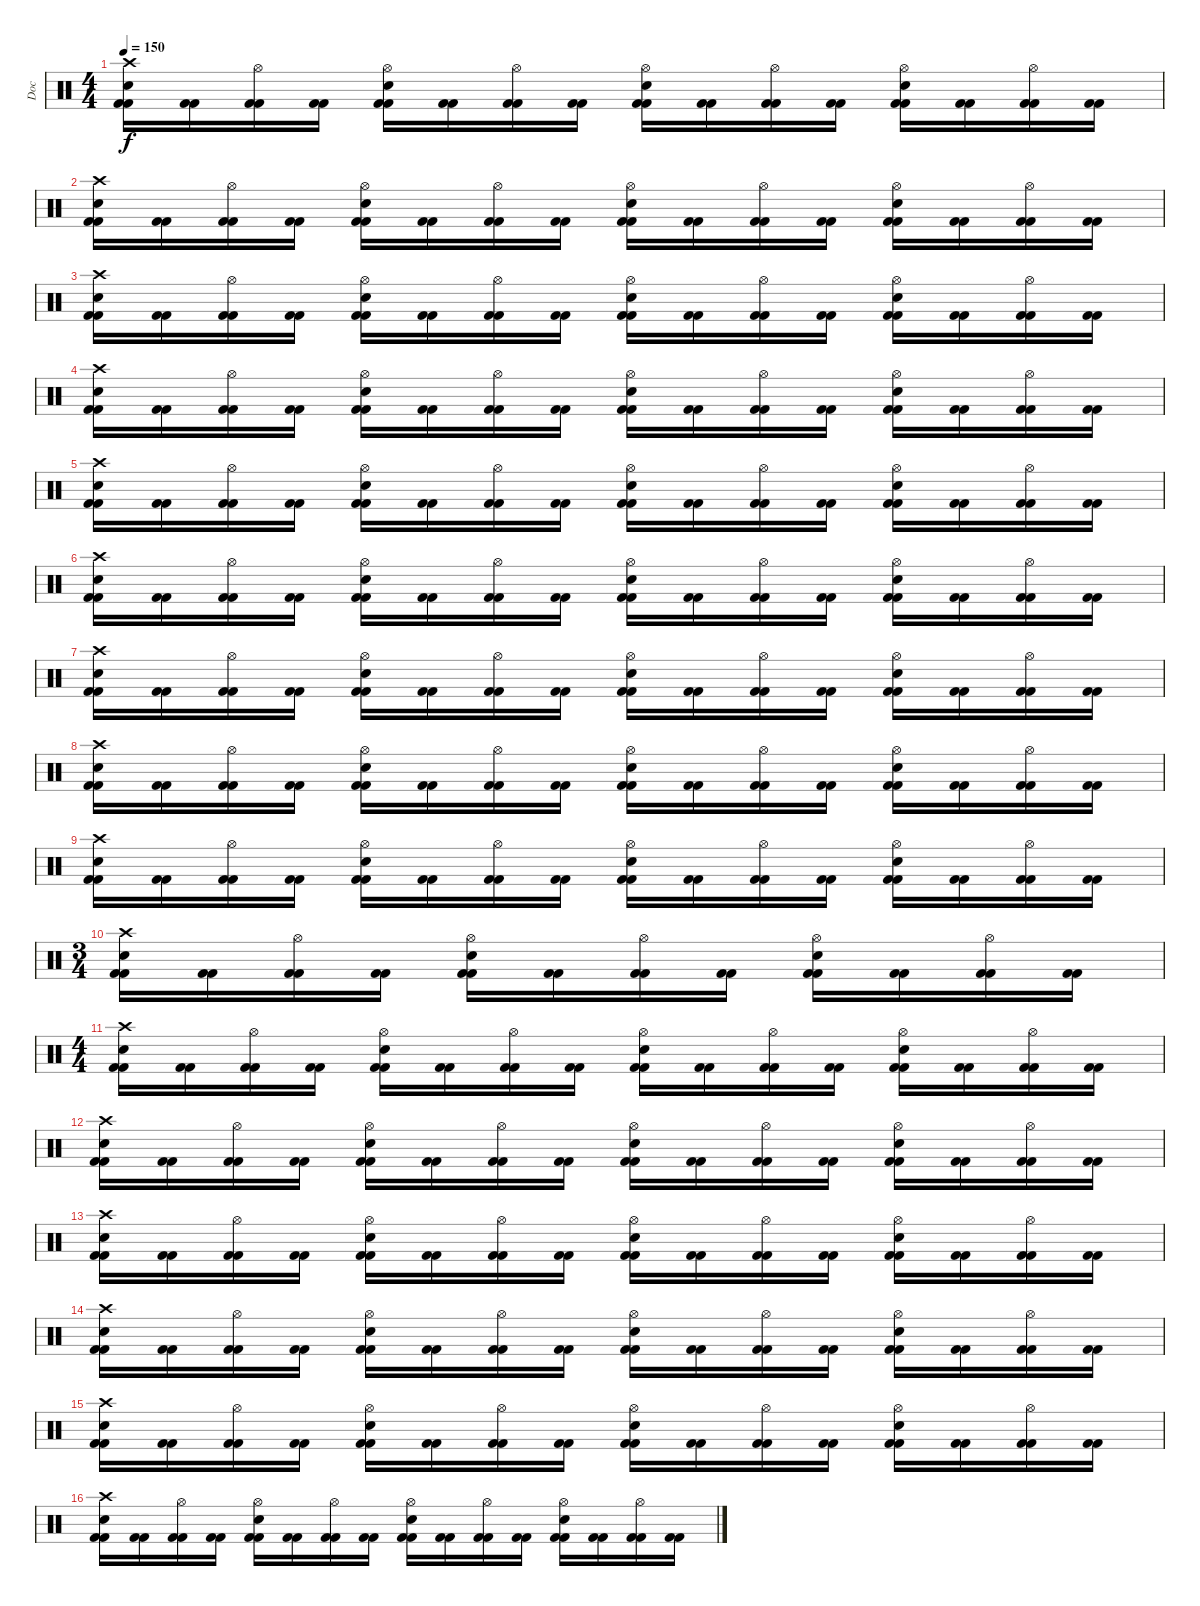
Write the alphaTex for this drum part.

\track ("Doc" "Doc") {instrument percussion}
\staff {score}
\articulation defaults
\ts (4 4)
\tempo 150
\clef neutral
\ks c
("Kick (hit) 2" "Crash high (hit)" "Electric Snare (hit)" "Kick (hit) 2").16{dy f} ("Kick (hit) 2" "Kick (hit) 2").16 ("Kick (hit) 2" "Hi-Hat (open)" "Kick (hit) 2").16 ("Kick (hit) 2" "Kick (hit) 2").16 ("Kick (hit) 2" "Hi-Hat (open)" "Electric Snare (hit)" "Kick (hit) 2").16 ("Kick (hit) 2" "Kick (hit) 2").16 ("Kick (hit) 2" "Hi-Hat (open)" "Kick (hit) 2").16 ("Kick (hit) 2" "Kick (hit) 2").16 ("Kick (hit) 2" "Hi-Hat (open)" "Electric Snare (hit)" "Kick (hit) 2").16 ("Kick (hit) 2" "Kick (hit) 2").16 ("Kick (hit) 2" "Hi-Hat (open)" "Kick (hit) 2").16 ("Kick (hit) 2" "Kick (hit) 2").16 ("Kick (hit) 2" "Hi-Hat (open)" "Electric Snare (hit)" "Kick (hit) 2").16 ("Kick (hit) 2" "Kick (hit) 2").16 ("Kick (hit) 2" "Hi-Hat (open)" "Kick (hit) 2").16 ("Kick (hit) 2" "Kick (hit) 2").16 |
("Kick (hit) 2" "Crash high (hit)" "Electric Snare (hit)" "Kick (hit) 2").16 ("Kick (hit) 2" "Kick (hit) 2").16 ("Kick (hit) 2" "Hi-Hat (open)" "Kick (hit) 2").16 ("Kick (hit) 2" "Kick (hit) 2").16 ("Kick (hit) 2" "Hi-Hat (open)" "Electric Snare (hit)" "Kick (hit) 2").16 ("Kick (hit) 2" "Kick (hit) 2").16 ("Kick (hit) 2" "Hi-Hat (open)" "Kick (hit) 2").16 ("Kick (hit) 2" "Kick (hit) 2").16 ("Kick (hit) 2" "Hi-Hat (open)" "Electric Snare (hit)" "Kick (hit) 2").16 ("Kick (hit) 2" "Kick (hit) 2").16 ("Kick (hit) 2" "Hi-Hat (open)" "Kick (hit) 2").16 ("Kick (hit) 2" "Kick (hit) 2").16 ("Kick (hit) 2" "Hi-Hat (open)" "Electric Snare (hit)" "Kick (hit) 2").16 ("Kick (hit) 2" "Kick (hit) 2").16 ("Kick (hit) 2" "Hi-Hat (open)" "Kick (hit) 2").16 ("Kick (hit) 2" "Kick (hit) 2").16 |
("Kick (hit) 2" "Crash high (hit)" "Electric Snare (hit)" "Kick (hit) 2").16 ("Kick (hit) 2" "Kick (hit) 2").16 ("Kick (hit) 2" "Hi-Hat (open)" "Kick (hit) 2").16 ("Kick (hit) 2" "Kick (hit) 2").16 ("Kick (hit) 2" "Hi-Hat (open)" "Electric Snare (hit)" "Kick (hit) 2").16 ("Kick (hit) 2" "Kick (hit) 2").16 ("Kick (hit) 2" "Hi-Hat (open)" "Kick (hit) 2").16 ("Kick (hit) 2" "Kick (hit) 2").16 ("Kick (hit) 2" "Hi-Hat (open)" "Electric Snare (hit)" "Kick (hit) 2").16 ("Kick (hit) 2" "Kick (hit) 2").16 ("Kick (hit) 2" "Hi-Hat (open)" "Kick (hit) 2").16 ("Kick (hit) 2" "Kick (hit) 2").16 ("Kick (hit) 2" "Hi-Hat (open)" "Electric Snare (hit)" "Kick (hit) 2").16 ("Kick (hit) 2" "Kick (hit) 2").16 ("Kick (hit) 2" "Hi-Hat (open)" "Kick (hit) 2").16 ("Kick (hit) 2" "Kick (hit) 2").16 |
("Kick (hit) 2" "Crash high (hit)" "Electric Snare (hit)" "Kick (hit) 2").16 ("Kick (hit) 2" "Kick (hit) 2").16 ("Kick (hit) 2" "Hi-Hat (open)" "Kick (hit) 2").16 ("Kick (hit) 2" "Kick (hit) 2").16 ("Kick (hit) 2" "Hi-Hat (open)" "Electric Snare (hit)" "Kick (hit) 2").16 ("Kick (hit) 2" "Kick (hit) 2").16 ("Kick (hit) 2" "Hi-Hat (open)" "Kick (hit) 2").16 ("Kick (hit) 2" "Kick (hit) 2").16 ("Kick (hit) 2" "Hi-Hat (open)" "Electric Snare (hit)" "Kick (hit) 2").16 ("Kick (hit) 2" "Kick (hit) 2").16 ("Kick (hit) 2" "Hi-Hat (open)" "Kick (hit) 2").16 ("Kick (hit) 2" "Kick (hit) 2").16 ("Kick (hit) 2" "Hi-Hat (open)" "Electric Snare (hit)" "Kick (hit) 2").16 ("Kick (hit) 2" "Kick (hit) 2").16 ("Kick (hit) 2" "Hi-Hat (open)" "Kick (hit) 2").16 ("Kick (hit) 2" "Kick (hit) 2").16 |
("Kick (hit) 2" "Crash high (hit)" "Electric Snare (hit)" "Kick (hit) 2").16 ("Kick (hit) 2" "Kick (hit) 2").16 ("Kick (hit) 2" "Hi-Hat (open)" "Kick (hit) 2").16 ("Kick (hit) 2" "Kick (hit) 2").16 ("Kick (hit) 2" "Hi-Hat (open)" "Electric Snare (hit)" "Kick (hit) 2").16 ("Kick (hit) 2" "Kick (hit) 2").16 ("Kick (hit) 2" "Hi-Hat (open)" "Kick (hit) 2").16 ("Kick (hit) 2" "Kick (hit) 2").16 ("Kick (hit) 2" "Hi-Hat (open)" "Electric Snare (hit)" "Kick (hit) 2").16 ("Kick (hit) 2" "Kick (hit) 2").16 ("Kick (hit) 2" "Hi-Hat (open)" "Kick (hit) 2").16 ("Kick (hit) 2" "Kick (hit) 2").16 ("Kick (hit) 2" "Hi-Hat (open)" "Electric Snare (hit)" "Kick (hit) 2").16 ("Kick (hit) 2" "Kick (hit) 2").16 ("Kick (hit) 2" "Hi-Hat (open)" "Kick (hit) 2").16 ("Kick (hit) 2" "Kick (hit) 2").16 |
("Kick (hit) 2" "Crash high (hit)" "Electric Snare (hit)" "Kick (hit) 2").16 ("Kick (hit) 2" "Kick (hit) 2").16 ("Kick (hit) 2" "Hi-Hat (open)" "Kick (hit) 2").16 ("Kick (hit) 2" "Kick (hit) 2").16 ("Kick (hit) 2" "Hi-Hat (open)" "Electric Snare (hit)" "Kick (hit) 2").16 ("Kick (hit) 2" "Kick (hit) 2").16 ("Kick (hit) 2" "Hi-Hat (open)" "Kick (hit) 2").16 ("Kick (hit) 2" "Kick (hit) 2").16 ("Kick (hit) 2" "Hi-Hat (open)" "Electric Snare (hit)" "Kick (hit) 2").16 ("Kick (hit) 2" "Kick (hit) 2").16 ("Kick (hit) 2" "Hi-Hat (open)" "Kick (hit) 2").16 ("Kick (hit) 2" "Kick (hit) 2").16 ("Kick (hit) 2" "Hi-Hat (open)" "Electric Snare (hit)" "Kick (hit) 2").16 ("Kick (hit) 2" "Kick (hit) 2").16 ("Kick (hit) 2" "Hi-Hat (open)" "Kick (hit) 2").16 ("Kick (hit) 2" "Kick (hit) 2").16 |
("Kick (hit) 2" "Crash high (hit)" "Electric Snare (hit)" "Kick (hit) 2").16 ("Kick (hit) 2" "Kick (hit) 2").16 ("Kick (hit) 2" "Hi-Hat (open)" "Kick (hit) 2").16 ("Kick (hit) 2" "Kick (hit) 2").16 ("Kick (hit) 2" "Hi-Hat (open)" "Electric Snare (hit)" "Kick (hit) 2").16 ("Kick (hit) 2" "Kick (hit) 2").16 ("Kick (hit) 2" "Hi-Hat (open)" "Kick (hit) 2").16 ("Kick (hit) 2" "Kick (hit) 2").16 ("Kick (hit) 2" "Hi-Hat (open)" "Electric Snare (hit)" "Kick (hit) 2").16 ("Kick (hit) 2" "Kick (hit) 2").16 ("Kick (hit) 2" "Hi-Hat (open)" "Kick (hit) 2").16 ("Kick (hit) 2" "Kick (hit) 2").16 ("Kick (hit) 2" "Hi-Hat (open)" "Electric Snare (hit)" "Kick (hit) 2").16 ("Kick (hit) 2" "Kick (hit) 2").16 ("Kick (hit) 2" "Hi-Hat (open)" "Kick (hit) 2").16 ("Kick (hit) 2" "Kick (hit) 2").16 |
("Kick (hit) 2" "Crash high (hit)" "Electric Snare (hit)" "Kick (hit) 2").16 ("Kick (hit) 2" "Kick (hit) 2").16 ("Kick (hit) 2" "Hi-Hat (open)" "Kick (hit) 2").16 ("Kick (hit) 2" "Kick (hit) 2").16 ("Kick (hit) 2" "Hi-Hat (open)" "Electric Snare (hit)" "Kick (hit) 2").16 ("Kick (hit) 2" "Kick (hit) 2").16 ("Kick (hit) 2" "Hi-Hat (open)" "Kick (hit) 2").16 ("Kick (hit) 2" "Kick (hit) 2").16 ("Kick (hit) 2" "Hi-Hat (open)" "Electric Snare (hit)" "Kick (hit) 2").16 ("Kick (hit) 2" "Kick (hit) 2").16 ("Kick (hit) 2" "Hi-Hat (open)" "Kick (hit) 2").16 ("Kick (hit) 2" "Kick (hit) 2").16 ("Kick (hit) 2" "Hi-Hat (open)" "Electric Snare (hit)" "Kick (hit) 2").16 ("Kick (hit) 2" "Kick (hit) 2").16 ("Kick (hit) 2" "Hi-Hat (open)" "Kick (hit) 2").16 ("Kick (hit) 2" "Kick (hit) 2").16 |
("Kick (hit) 2" "Crash high (hit)" "Electric Snare (hit)" "Kick (hit) 2").16 ("Kick (hit) 2" "Kick (hit) 2").16 ("Kick (hit) 2" "Hi-Hat (open)" "Kick (hit) 2").16 ("Kick (hit) 2" "Kick (hit) 2").16 ("Kick (hit) 2" "Hi-Hat (open)" "Electric Snare (hit)" "Kick (hit) 2").16 ("Kick (hit) 2" "Kick (hit) 2").16 ("Kick (hit) 2" "Hi-Hat (open)" "Kick (hit) 2").16 ("Kick (hit) 2" "Kick (hit) 2").16 ("Kick (hit) 2" "Hi-Hat (open)" "Electric Snare (hit)" "Kick (hit) 2").16 ("Kick (hit) 2" "Kick (hit) 2").16 ("Kick (hit) 2" "Hi-Hat (open)" "Kick (hit) 2").16 ("Kick (hit) 2" "Kick (hit) 2").16 ("Kick (hit) 2" "Hi-Hat (open)" "Electric Snare (hit)" "Kick (hit) 2").16 ("Kick (hit) 2" "Kick (hit) 2").16 ("Kick (hit) 2" "Hi-Hat (open)" "Kick (hit) 2").16 ("Kick (hit) 2" "Kick (hit) 2").16 |
\ts (3 4)
("Kick (hit) 2" "Crash high (hit)" "Electric Snare (hit)" "Kick (hit) 2").16 ("Kick (hit) 2" "Kick (hit) 2").16 ("Kick (hit) 2" "Hi-Hat (open)" "Kick (hit) 2").16 ("Kick (hit) 2" "Kick (hit) 2").16 ("Kick (hit) 2" "Hi-Hat (open)" "Electric Snare (hit)" "Kick (hit) 2").16 ("Kick (hit) 2" "Kick (hit) 2").16 ("Kick (hit) 2" "Hi-Hat (open)" "Kick (hit) 2").16 ("Kick (hit) 2" "Kick (hit) 2").16 ("Kick (hit) 2" "Hi-Hat (open)" "Electric Snare (hit)" "Kick (hit) 2").16 ("Kick (hit) 2" "Kick (hit) 2").16 ("Kick (hit) 2" "Hi-Hat (open)" "Kick (hit) 2").16 ("Kick (hit) 2" "Kick (hit) 2").16 |
\ts (4 4)
("Kick (hit) 2" "Crash high (hit)" "Electric Snare (hit)" "Kick (hit) 2").16 ("Kick (hit) 2" "Kick (hit) 2").16 ("Kick (hit) 2" "Hi-Hat (open)" "Kick (hit) 2").16 ("Kick (hit) 2" "Kick (hit) 2").16 ("Kick (hit) 2" "Hi-Hat (open)" "Electric Snare (hit)" "Kick (hit) 2").16 ("Kick (hit) 2" "Kick (hit) 2").16 ("Kick (hit) 2" "Hi-Hat (open)" "Kick (hit) 2").16 ("Kick (hit) 2" "Kick (hit) 2").16 ("Kick (hit) 2" "Hi-Hat (open)" "Electric Snare (hit)" "Kick (hit) 2").16 ("Kick (hit) 2" "Kick (hit) 2").16 ("Kick (hit) 2" "Hi-Hat (open)" "Kick (hit) 2").16 ("Kick (hit) 2" "Kick (hit) 2").16 ("Kick (hit) 2" "Hi-Hat (open)" "Electric Snare (hit)" "Kick (hit) 2").16 ("Kick (hit) 2" "Kick (hit) 2").16 ("Kick (hit) 2" "Hi-Hat (open)" "Kick (hit) 2").16 ("Kick (hit) 2" "Kick (hit) 2").16 |
("Kick (hit) 2" "Crash high (hit)" "Electric Snare (hit)" "Kick (hit) 2").16 ("Kick (hit) 2" "Kick (hit) 2").16 ("Kick (hit) 2" "Hi-Hat (open)" "Kick (hit) 2").16 ("Kick (hit) 2" "Kick (hit) 2").16 ("Kick (hit) 2" "Hi-Hat (open)" "Electric Snare (hit)" "Kick (hit) 2").16 ("Kick (hit) 2" "Kick (hit) 2").16 ("Kick (hit) 2" "Hi-Hat (open)" "Kick (hit) 2").16 ("Kick (hit) 2" "Kick (hit) 2").16 ("Kick (hit) 2" "Hi-Hat (open)" "Electric Snare (hit)" "Kick (hit) 2").16 ("Kick (hit) 2" "Kick (hit) 2").16 ("Kick (hit) 2" "Hi-Hat (open)" "Kick (hit) 2").16 ("Kick (hit) 2" "Kick (hit) 2").16 ("Kick (hit) 2" "Hi-Hat (open)" "Electric Snare (hit)" "Kick (hit) 2").16 ("Kick (hit) 2" "Kick (hit) 2").16 ("Kick (hit) 2" "Hi-Hat (open)" "Kick (hit) 2").16 ("Kick (hit) 2" "Kick (hit) 2").16 |
("Kick (hit) 2" "Crash high (hit)" "Electric Snare (hit)" "Kick (hit) 2").16 ("Kick (hit) 2" "Kick (hit) 2").16 ("Kick (hit) 2" "Hi-Hat (open)" "Kick (hit) 2").16 ("Kick (hit) 2" "Kick (hit) 2").16 ("Kick (hit) 2" "Hi-Hat (open)" "Electric Snare (hit)" "Kick (hit) 2").16 ("Kick (hit) 2" "Kick (hit) 2").16 ("Kick (hit) 2" "Hi-Hat (open)" "Kick (hit) 2").16 ("Kick (hit) 2" "Kick (hit) 2").16 ("Kick (hit) 2" "Hi-Hat (open)" "Electric Snare (hit)" "Kick (hit) 2").16 ("Kick (hit) 2" "Kick (hit) 2").16 ("Kick (hit) 2" "Hi-Hat (open)" "Kick (hit) 2").16 ("Kick (hit) 2" "Kick (hit) 2").16 ("Kick (hit) 2" "Hi-Hat (open)" "Electric Snare (hit)" "Kick (hit) 2").16 ("Kick (hit) 2" "Kick (hit) 2").16 ("Kick (hit) 2" "Hi-Hat (open)" "Kick (hit) 2").16 ("Kick (hit) 2" "Kick (hit) 2").16 |
("Kick (hit) 2" "Crash high (hit)" "Electric Snare (hit)" "Kick (hit) 2").16 ("Kick (hit) 2" "Kick (hit) 2").16 ("Kick (hit) 2" "Hi-Hat (open)" "Kick (hit) 2").16 ("Kick (hit) 2" "Kick (hit) 2").16 ("Kick (hit) 2" "Hi-Hat (open)" "Electric Snare (hit)" "Kick (hit) 2").16 ("Kick (hit) 2" "Kick (hit) 2").16 ("Kick (hit) 2" "Hi-Hat (open)" "Kick (hit) 2").16 ("Kick (hit) 2" "Kick (hit) 2").16 ("Kick (hit) 2" "Hi-Hat (open)" "Electric Snare (hit)" "Kick (hit) 2").16 ("Kick (hit) 2" "Kick (hit) 2").16 ("Kick (hit) 2" "Hi-Hat (open)" "Kick (hit) 2").16 ("Kick (hit) 2" "Kick (hit) 2").16 ("Kick (hit) 2" "Hi-Hat (open)" "Electric Snare (hit)" "Kick (hit) 2").16 ("Kick (hit) 2" "Kick (hit) 2").16 ("Kick (hit) 2" "Hi-Hat (open)" "Kick (hit) 2").16 ("Kick (hit) 2" "Kick (hit) 2").16 |
("Kick (hit) 2" "Crash high (hit)" "Electric Snare (hit)" "Kick (hit) 2").16 ("Kick (hit) 2" "Kick (hit) 2").16 ("Kick (hit) 2" "Hi-Hat (open)" "Kick (hit) 2").16 ("Kick (hit) 2" "Kick (hit) 2").16 ("Kick (hit) 2" "Hi-Hat (open)" "Electric Snare (hit)" "Kick (hit) 2").16 ("Kick (hit) 2" "Kick (hit) 2").16 ("Kick (hit) 2" "Hi-Hat (open)" "Kick (hit) 2").16 ("Kick (hit) 2" "Kick (hit) 2").16 ("Kick (hit) 2" "Hi-Hat (open)" "Electric Snare (hit)" "Kick (hit) 2").16 ("Kick (hit) 2" "Kick (hit) 2").16 ("Kick (hit) 2" "Hi-Hat (open)" "Kick (hit) 2").16 ("Kick (hit) 2" "Kick (hit) 2").16 ("Kick (hit) 2" "Hi-Hat (open)" "Electric Snare (hit)" "Kick (hit) 2").16 ("Kick (hit) 2" "Kick (hit) 2").16 ("Kick (hit) 2" "Hi-Hat (open)" "Kick (hit) 2").16 ("Kick (hit) 2" "Kick (hit) 2").16 |
("Kick (hit) 2" "Crash high (hit)" "Electric Snare (hit)" "Kick (hit) 2").16 ("Kick (hit) 2" "Kick (hit) 2").16 ("Kick (hit) 2" "Hi-Hat (open)" "Kick (hit) 2").16 ("Kick (hit) 2" "Kick (hit) 2").16 ("Kick (hit) 2" "Hi-Hat (open)" "Electric Snare (hit)" "Kick (hit) 2").16 ("Kick (hit) 2" "Kick (hit) 2").16 ("Kick (hit) 2" "Hi-Hat (open)" "Kick (hit) 2").16 ("Kick (hit) 2" "Kick (hit) 2").16 ("Kick (hit) 2" "Hi-Hat (open)" "Electric Snare (hit)" "Kick (hit) 2").16 ("Kick (hit) 2" "Kick (hit) 2").16 ("Kick (hit) 2" "Hi-Hat (open)" "Kick (hit) 2").16 ("Kick (hit) 2" "Kick (hit) 2").16 ("Kick (hit) 2" "Hi-Hat (open)" "Electric Snare (hit)" "Kick (hit) 2").16 ("Kick (hit) 2" "Kick (hit) 2").16 ("Kick (hit) 2" "Hi-Hat (open)" "Kick (hit) 2").16 ("Kick (hit) 2" "Kick (hit) 2").16
